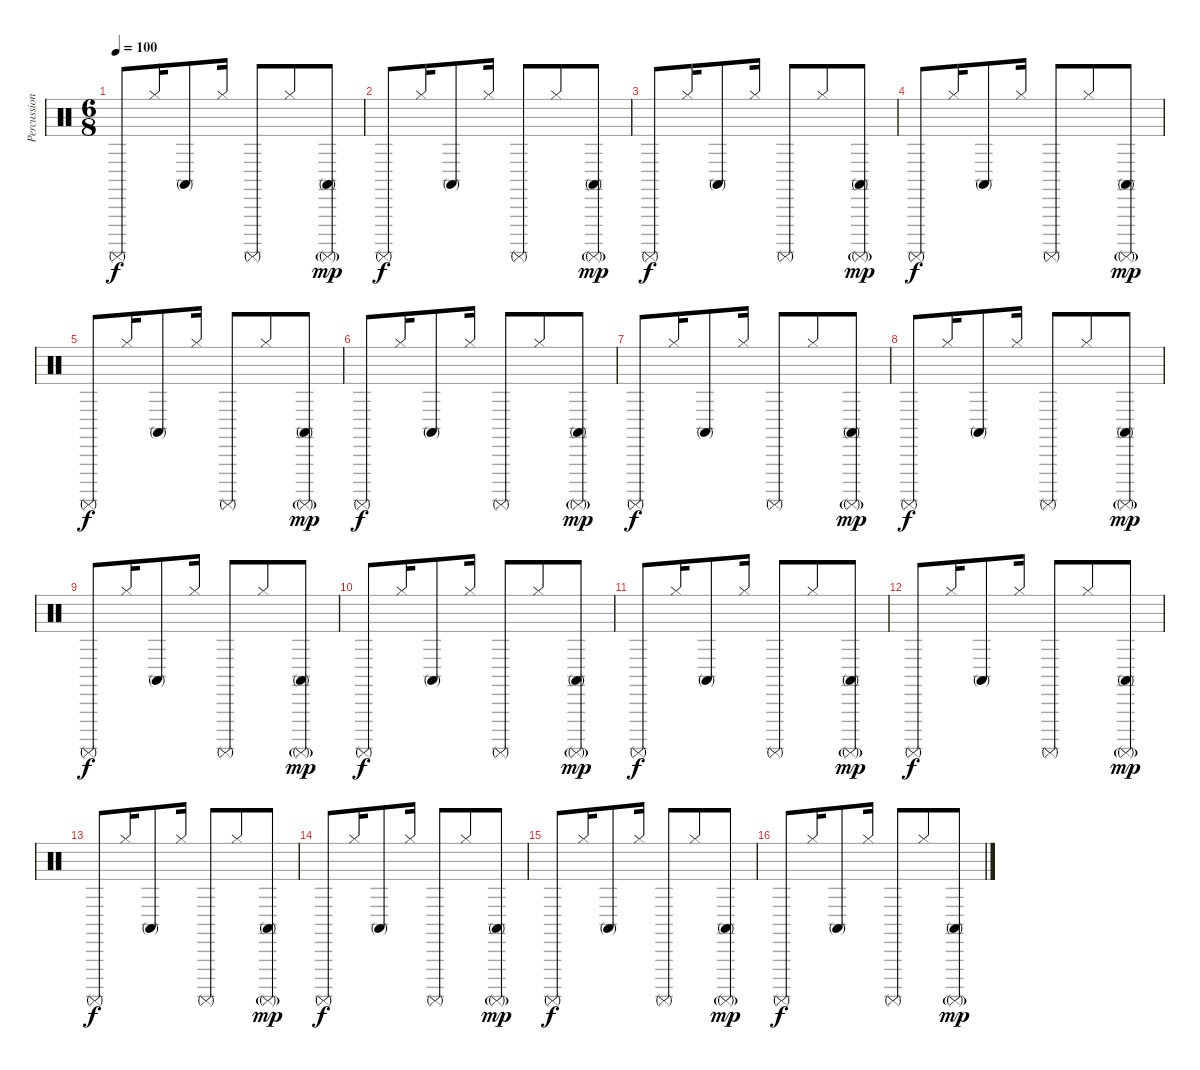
\track ("Percussion" "Percussion") {instrument percussion}
\staff {score}
\articulation defaults
\ts (6 8)
\tempo 100
\clef neutral
\ks c "Surdo (mute)".8{dy f} "Hi-Hat (closed)".16 "Conga high (mute)".8 "Hi-Hat (closed)".16 "Surdo (mute)".8 "Hi-Hat (closed)".8
("Conga high (mute)" "Surdo (mute)"{g}).8{dy mp} |
"Surdo (mute)".8{dy f} "Hi-Hat (closed)".16 "Conga high (mute)".8 "Hi-Hat (closed)".16 "Surdo (mute)".8 "Hi-Hat (closed)".8 ("Conga high (mute)" "Surdo (mute)"{g}).8{dy mp} |
"Surdo (mute)".8{dy f} "Hi-Hat (closed)".16 "Conga high (mute)".8 "Hi-Hat (closed)".16 "Surdo (mute)".8 "Hi-Hat (closed)".8 ("Conga high (mute)" "Surdo (mute)"{g}).8{dy mp} |
"Surdo (mute)".8{dy f} "Hi-Hat (closed)".16 "Conga high (mute)".8 "Hi-Hat (closed)".16 "Surdo (mute)".8 "Hi-Hat (closed)".8 ("Conga high (mute)" "Surdo (mute)"{g}).8{dy mp} |
"Surdo (mute)".8{dy f} "Hi-Hat (closed)".16 "Conga high (mute)".8 "Hi-Hat (closed)".16 "Surdo (mute)".8 "Hi-Hat (closed)".8 ("Conga high (mute)" "Surdo (mute)"{g}).8{dy mp} |
"Surdo (mute)".8{dy f} "Hi-Hat (closed)".16 "Conga high (mute)".8 "Hi-Hat (closed)".16 "Surdo (mute)".8 "Hi-Hat (closed)".8 ("Conga high (mute)" "Surdo (mute)"{g}).8{dy mp} |
"Surdo (mute)".8{dy f} "Hi-Hat (closed)".16 "Conga high (mute)".8 "Hi-Hat (closed)".16 "Surdo (mute)".8 "Hi-Hat (closed)".8 ("Conga high (mute)" "Surdo (mute)"{g}).8{dy mp} |
"Surdo (mute)".8{dy f} "Hi-Hat (closed)".16 "Conga high (mute)".8 "Hi-Hat (closed)".16 "Surdo (mute)".8 "Hi-Hat (closed)".8 ("Conga high (mute)" "Surdo (mute)"{g}).8{dy mp} |
"Surdo (mute)".8{dy f} "Hi-Hat (closed)".16 "Conga high (mute)".8 "Hi-Hat (closed)".16 "Surdo (mute)".8 "Hi-Hat (closed)".8 ("Conga high (mute)" "Surdo (mute)"{g}).8{dy mp} |
"Surdo (mute)".8{dy f} "Hi-Hat (closed)".16 "Conga high (mute)".8 "Hi-Hat (closed)".16 "Surdo (mute)".8 "Hi-Hat (closed)".8 ("Conga high (mute)" "Surdo (mute)"{g}).8{dy mp} |
"Surdo (mute)".8{dy f} "Hi-Hat (closed)".16 "Conga high (mute)".8 "Hi-Hat (closed)".16 "Surdo (mute)".8 "Hi-Hat (closed)".8 ("Conga high (mute)" "Surdo (mute)"{g}).8{dy mp} |
"Surdo (mute)".8{dy f} "Hi-Hat (closed)".16 "Conga high (mute)".8 "Hi-Hat (closed)".16 "Surdo (mute)".8 "Hi-Hat (closed)".8 ("Conga high (mute)" "Surdo (mute)"{g}).8{dy mp} |
"Surdo (mute)".8{dy f} "Hi-Hat (closed)".16 "Conga high (mute)".8 "Hi-Hat (closed)".16 "Surdo (mute)".8 "Hi-Hat (closed)".8 ("Conga high (mute)" "Surdo (mute)"{g}).8{dy mp} |
"Surdo (mute)".8{dy f} "Hi-Hat (closed)".16 "Conga high (mute)".8 "Hi-Hat (closed)".16 "Surdo (mute)".8 "Hi-Hat (closed)".8 ("Conga high (mute)" "Surdo (mute)"{g}).8{dy mp} |
"Surdo (mute)".8{dy f} "Hi-Hat (closed)".16 "Conga high (mute)".8 "Hi-Hat (closed)".16 "Surdo (mute)".8 "Hi-Hat (closed)".8 ("Conga high (mute)" "Surdo (mute)"{g}).8{dy mp} |
"Surdo (mute)".8{dy f} "Hi-Hat (closed)".16 "Conga high (mute)".8 "Hi-Hat (closed)".16 "Surdo (mute)".8 "Hi-Hat (closed)".8 ("Conga high (mute)" "Surdo (mute)"{g}).8{dy mp}
